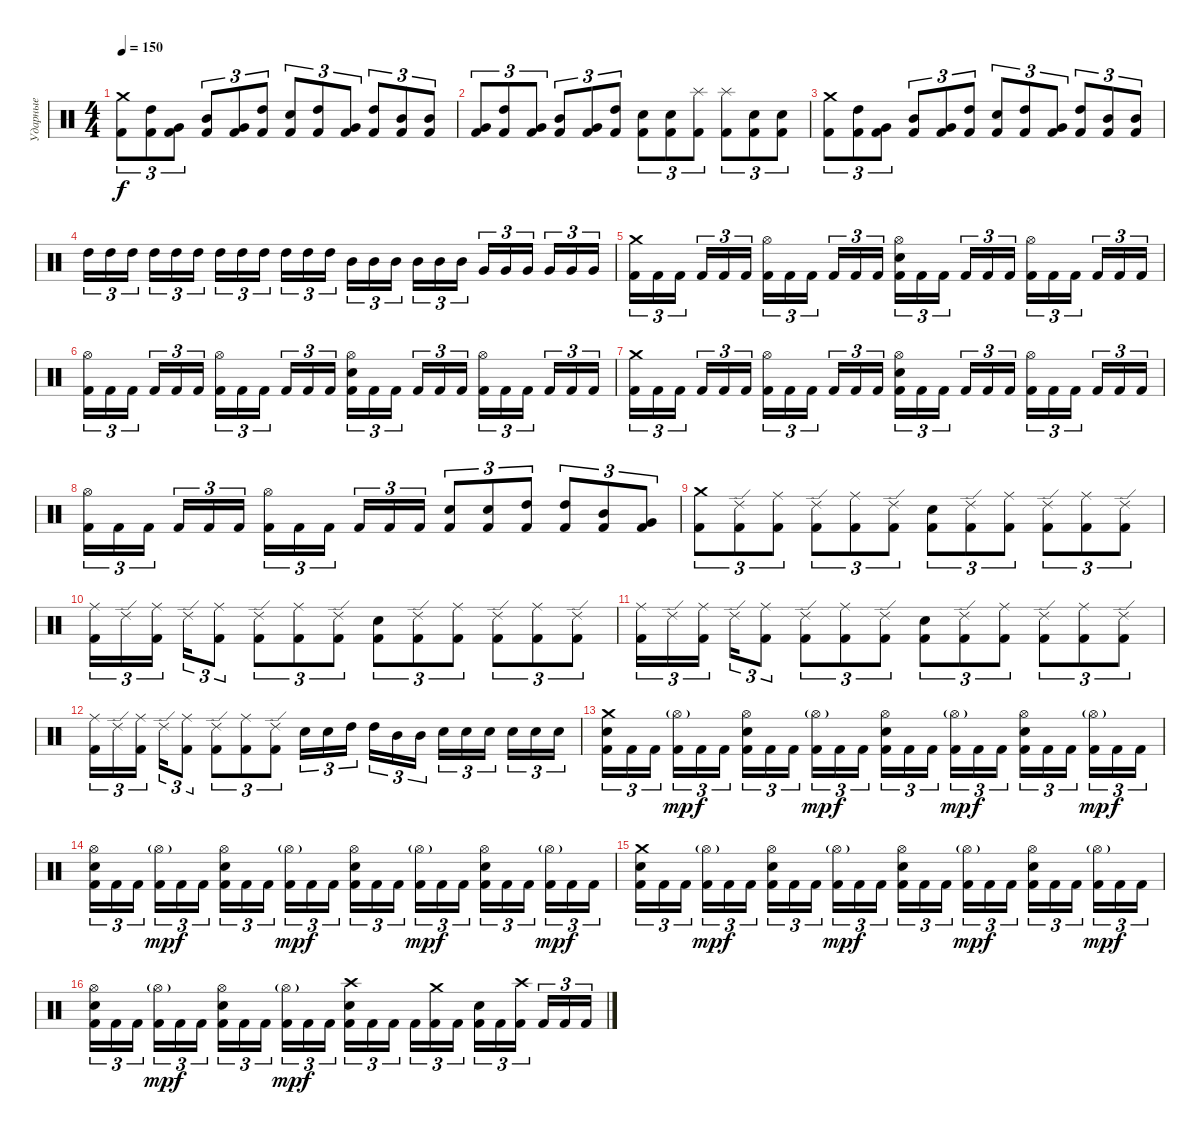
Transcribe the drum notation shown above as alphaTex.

\track ("Ударные" "Ударные") {instrument percussion}
\staff
\articulation defaults
\ts (4 4)
\tempo 150
\clef neutral
\ks c
("Crash medium (hit)" "Kick (hit) 2").8{tu (3 2) dy f} ("High Tom (hit)" "Kick (hit) 2").8{tu (3 2)} ("Very Low Tom (hit)" "Kick (hit) 2").8{tu (3 2)} ("Mid Tom (hit)" "Kick (hit) 2").8{tu (3 2)} ("Very Low Tom (hit)" "Kick (hit) 2").8{tu (3 2)} ("High Tom (hit)" "Kick (hit) 2").8{tu (3 2)} ("Snare (hit) 2" "Kick (hit) 2").8{tu (3 2)} ("High Tom (hit)" "Kick (hit) 2").8{tu (3 2)} ("Very Low Tom (hit)" "Kick (hit) 2").8{tu (3 2)} ("High Tom (hit)" "Kick (hit) 2").8{tu (3 2)} ("Mid Tom (hit)" "Kick (hit) 2").8{tu (3 2)} ("Mid Tom (hit)" "Kick (hit) 2").8{tu (3 2)} |
("Very Low Tom (hit)" "Kick (hit) 2").8{tu (3 2)} ("High Tom (hit)" "Kick (hit) 2").8{tu (3 2)} ("Very Low Tom (hit)" "Kick (hit) 2").8{tu (3 2)} ("Mid Tom (hit)" "Kick (hit) 2").8{tu (3 2)} ("Very Low Tom (hit)" "Kick (hit) 2").8{tu (3 2)} ("High Tom (hit)" "Kick (hit) 2").8{tu (3 2)} ("Snare (hit) 2" "Kick (hit) 2").8{tu (3 2)} ("Snare (hit) 2" "Kick (hit) 2").8{tu (3 2)} ("Splash (hit)" "Kick (hit) 2").8{tu (3 2)} ("Splash (hit)" "Kick (hit) 2").8{tu (3 2)} ("Snare (hit) 2" "Kick (hit) 2").8{tu (3 2)} ("Snare (hit) 2" "Kick (hit) 2").8{tu (3 2)} |
("Crash medium (hit)" "Kick (hit) 2").8{tu (3 2)} ("High Tom (hit)" "Kick (hit) 2").8{tu (3 2)} ("Very Low Tom (hit)" "Kick (hit) 2").8{tu (3 2)} ("Mid Tom (hit)" "Kick (hit) 2").8{tu (3 2)} ("Very Low Tom (hit)" "Kick (hit) 2").8{tu (3 2)} ("High Tom (hit)" "Kick (hit) 2").8{tu (3 2)} ("Snare (hit) 2" "Kick (hit) 2").8{tu (3 2)} ("High Tom (hit)" "Kick (hit) 2").8{tu (3 2)} ("Very Low Tom (hit)" "Kick (hit) 2").8{tu (3 2)} ("High Tom (hit)" "Kick (hit) 2").8{tu (3 2)} ("Mid Tom (hit)" "Kick (hit) 2").8{tu (3 2)} ("Mid Tom (hit)" "Kick (hit) 2").8{tu (3 2)} |
"High Tom (hit)".16{tu (3 2)} "High Tom (hit)".16{tu (3 2)} "High Tom (hit)".16{tu (3 2) beam splitsecondary} "High Tom (hit)".16{tu (3 2)} "High Tom (hit)".16{tu (3 2)} "High Tom (hit)".16{tu (3 2)} "High Tom (hit)".16{tu (3 2)} "High Tom (hit)".16{tu (3 2)} "High Tom (hit)".16{tu (3 2) beam splitsecondary} "High Tom (hit)".16{tu (3 2)} "High Tom (hit)".16{tu (3 2)} "High Tom (hit)".16{tu (3 2)} "Mid Tom (hit)".16{tu (3 2)} "Mid Tom (hit)".16{tu (3 2)} "Mid Tom (hit)".16{tu (3 2) beam splitsecondary} "Mid Tom (hit)".16{tu (3 2)} "Mid Tom (hit)".16{tu (3 2)} "Mid Tom (hit)".16{tu (3 2)} "Very Low Tom (hit)".16{tu (3 2)} "Very Low Tom (hit)".16{tu (3 2)} "Very Low Tom (hit)".16{tu (3 2) beam splitsecondary} "Very Low Tom (hit)".16{tu (3 2)} "Very Low Tom (hit)".16{tu (3 2)} "Very Low Tom (hit)".16{tu (3 2)} |
("Crash medium (hit)" "Kick (hit) 2").16{tu (3 2)} "Kick (hit) 2".16{tu (3 2)} "Kick (hit) 2".16{tu (3 2) beam splitsecondary} "Kick (hit) 2".16{tu (3 2)} "Kick (hit) 2".16{tu (3 2)} "Kick (hit) 2".16{tu (3 2)} ("Hi-Hat (open)" "Kick (hit) 2").16{tu (3 2)} "Kick (hit) 2".16{tu (3 2)} "Kick (hit) 2".16{tu (3 2) beam splitsecondary} "Kick (hit) 2".16{tu (3 2)} "Kick (hit) 2".16{tu (3 2)} "Kick (hit) 2".16{tu (3 2)} ("Hi-Hat (open)" "Snare (hit) 2" "Kick (hit) 2").16{tu (3 2)} "Kick (hit) 2".16{tu (3 2)} "Kick (hit) 2".16{tu (3 2) beam splitsecondary} "Kick (hit) 2".16{tu (3 2)} "Kick (hit) 2".16{tu (3 2)} "Kick (hit) 2".16{tu (3 2)} ("Hi-Hat (open)" "Kick (hit) 2").16{tu (3 2)} "Kick (hit) 2".16{tu (3 2)} "Kick (hit) 2".16{tu (3 2) beam splitsecondary} "Kick (hit) 2".16{tu (3 2)} "Kick (hit) 2".16{tu (3 2)} "Kick (hit) 2".16{tu (3 2)} |
("Hi-Hat (open)" "Kick (hit) 2").16{tu (3 2)} "Kick (hit) 2".16{tu (3 2)} "Kick (hit) 2".16{tu (3 2) beam splitsecondary} "Kick (hit) 2".16{tu (3 2)} "Kick (hit) 2".16{tu (3 2)} "Kick (hit) 2".16{tu (3 2)} ("Hi-Hat (open)" "Kick (hit) 2").16{tu (3 2)} "Kick (hit) 2".16{tu (3 2)} "Kick (hit) 2".16{tu (3 2) beam splitsecondary} "Kick (hit) 2".16{tu (3 2)} "Kick (hit) 2".16{tu (3 2)} "Kick (hit) 2".16{tu (3 2)} ("Hi-Hat (open)" "Snare (hit) 2" "Kick (hit) 2").16{tu (3 2)} "Kick (hit) 2".16{tu (3 2)} "Kick (hit) 2".16{tu (3 2) beam splitsecondary} "Kick (hit) 2".16{tu (3 2)} "Kick (hit) 2".16{tu (3 2)} "Kick (hit) 2".16{tu (3 2)} ("Hi-Hat (open)" "Kick (hit) 2").16{tu (3 2)} "Kick (hit) 2".16{tu (3 2)} "Kick (hit) 2".16{tu (3 2) beam splitsecondary} "Kick (hit) 2".16{tu (3 2)} "Kick (hit) 2".16{tu (3 2)} "Kick (hit) 2".16{tu (3 2)} |
("Crash medium (hit)" "Kick (hit) 2").16{tu (3 2)} "Kick (hit) 2".16{tu (3 2)} "Kick (hit) 2".16{tu (3 2) beam splitsecondary} "Kick (hit) 2".16{tu (3 2)} "Kick (hit) 2".16{tu (3 2)} "Kick (hit) 2".16{tu (3 2)} ("Hi-Hat (open)" "Kick (hit) 2").16{tu (3 2)} "Kick (hit) 2".16{tu (3 2)} "Kick (hit) 2".16{tu (3 2) beam splitsecondary} "Kick (hit) 2".16{tu (3 2)} "Kick (hit) 2".16{tu (3 2)} "Kick (hit) 2".16{tu (3 2)} ("Hi-Hat (open)" "Snare (hit) 2" "Kick (hit) 2").16{tu (3 2)} "Kick (hit) 2".16{tu (3 2)} "Kick (hit) 2".16{tu (3 2) beam splitsecondary} "Kick (hit) 2".16{tu (3 2)} "Kick (hit) 2".16{tu (3 2)} "Kick (hit) 2".16{tu (3 2)} ("Hi-Hat (open)" "Kick (hit) 2").16{tu (3 2)} "Kick (hit) 2".16{tu (3 2)} "Kick (hit) 2".16{tu (3 2) beam splitsecondary} "Kick (hit) 2".16{tu (3 2)} "Kick (hit) 2".16{tu (3 2)} "Kick (hit) 2".16{tu (3 2)} |
("Hi-Hat (open)" "Kick (hit) 2").16{tu (3 2)} "Kick (hit) 2".16{tu (3 2)} "Kick (hit) 2".16{tu (3 2) beam splitsecondary} "Kick (hit) 2".16{tu (3 2)} "Kick (hit) 2".16{tu (3 2)} "Kick (hit) 2".16{tu (3 2)} ("Hi-Hat (open)" "Kick (hit) 2").16{tu (3 2)} "Kick (hit) 2".16{tu (3 2)} "Kick (hit) 2".16{tu (3 2) beam splitsecondary} "Kick (hit) 2".16{tu (3 2)} "Kick (hit) 2".16{tu (3 2)} "Kick (hit) 2".16{tu (3 2)} ("Snare (hit) 2" "Kick (hit) 2").8{tu (3 2)} ("Snare (hit) 2" "Kick (hit) 2").8{tu (3 2)} ("High Tom (hit)" "Kick (hit) 2").8{tu (3 2)} ("High Tom (hit)" "Kick (hit) 2").8{tu (3 2)} ("Mid Tom (hit)" "Kick (hit) 2").8{tu (3 2)} ("Very Low Tom (hit)" "Kick (hit) 2").8{tu (3 2)} |
("Crash medium (hit)" "Kick (hit) 2").8{tu (3 2)} ("Ride (edge) 2" "Kick (hit) 2").8{tu (3 2)} ("Ride (middle)" "Kick (hit) 2").8{tu (3 2)} ("Ride (edge) 2" "Kick (hit) 2").8{tu (3 2)} ("Ride (middle)" "Kick (hit) 2").8{tu (3 2)} ("Ride (edge) 2" "Kick (hit) 2").8{tu (3 2)} ("Snare (hit) 2" "Kick (hit) 2").8{tu (3 2)} ("Ride (edge) 2" "Kick (hit) 2").8{tu (3 2)} ("Ride (middle)" "Kick (hit) 2").8{tu (3 2)} ("Ride (edge) 2" "Kick (hit) 2").8{tu (3 2)} ("Ride (middle)" "Kick (hit) 2").8{tu (3 2)} ("Ride (edge) 2" "Kick (hit) 2").8{tu (3 2)} |
("Ride (middle)" "Kick (hit) 2").16{tu (3 2)} "Ride (edge) 2".16{tu (3 2)} ("Ride (middle)" "Kick (hit) 2").16{tu (3 2) beam splitsecondary} "Ride (edge) 2".16{tu (3 2)} ("Ride (middle)" "Kick (hit) 2").8{tu (3 2)} ("Ride (edge) 2" "Kick (hit) 2").8{tu (3 2)} ("Ride (middle)" "Kick (hit) 2").8{tu (3 2)} ("Ride (edge) 2" "Kick (hit) 2").8{tu (3 2)} ("Snare (hit) 2" "Kick (hit) 2").8{tu (3 2)} ("Ride (edge) 2" "Kick (hit) 2").8{tu (3 2)} ("Ride (middle)" "Kick (hit) 2").8{tu (3 2)} ("Ride (edge) 2" "Kick (hit) 2").8{tu (3 2)} ("Ride (middle)" "Kick (hit) 2").8{tu (3 2)} ("Ride (edge) 2" "Kick (hit) 2").8{tu (3 2)} |
("Ride (middle)" "Kick (hit) 2").16{tu (3 2)} "Ride (edge) 2".16{tu (3 2)} ("Ride (middle)" "Kick (hit) 2").16{tu (3 2) beam splitsecondary} "Ride (edge) 2".16{tu (3 2)} ("Ride (middle)" "Kick (hit) 2").8{tu (3 2)} ("Ride (edge) 2" "Kick (hit) 2").8{tu (3 2)} ("Ride (middle)" "Kick (hit) 2").8{tu (3 2)} ("Ride (edge) 2" "Kick (hit) 2").8{tu (3 2)} ("Snare (hit) 2" "Kick (hit) 2").8{tu (3 2)} ("Ride (edge) 2" "Kick (hit) 2").8{tu (3 2)} ("Ride (middle)" "Kick (hit) 2").8{tu (3 2)} ("Ride (edge) 2" "Kick (hit) 2").8{tu (3 2)} ("Ride (middle)" "Kick (hit) 2").8{tu (3 2)} ("Ride (edge) 2" "Kick (hit) 2").8{tu (3 2)} |
("Ride (middle)" "Kick (hit) 2").16{tu (3 2)} "Ride (edge) 2".16{tu (3 2)} ("Ride (middle)" "Kick (hit) 2").16{tu (3 2) beam splitsecondary} "Ride (edge) 2".16{tu (3 2)} ("Ride (middle)" "Kick (hit) 2").8{tu (3 2)} ("Ride (edge) 2" "Kick (hit) 2").8{tu (3 2)} ("Ride (middle)" "Kick (hit) 2").8{tu (3 2)} ("Ride (edge) 2" "Kick (hit) 2").8{tu (3 2)} "Snare (hit) 2".16{tu (3 2)} "Snare (hit) 2".16{tu (3 2)} "High Tom (hit)".16{tu (3 2) beam splitsecondary} "High Tom (hit)".16{tu (3 2)} "Mid Tom (hit)".16{tu (3 2)} "Mid Tom (hit)".16{tu (3 2)} "Snare (hit) 2".16{tu (3 2)} "Snare (hit) 2".16{tu (3 2)} "Snare (hit) 2".16{tu (3 2) beam splitsecondary} "Snare (hit) 2".16{tu (3 2)} "Snare (hit) 2".16{tu (3 2)} "Snare (hit) 2".16{tu (3 2)} |
("Crash medium (hit)" "Snare (hit) 2" "Kick (hit) 2").16{tu (3 2)} "Kick (hit) 2".16{tu (3 2)} "Kick (hit) 2".16{tu (3 2) beam splitsecondary} ("Hi-Hat (open)"{g} "Kick (hit) 2").16{tu (3 2) dy mp} "Kick (hit) 2".16{tu (3 2) dy f} "Kick (hit) 2".16{tu (3 2)} ("Hi-Hat (open)" "Snare (hit) 2" "Kick (hit) 2").16{tu (3 2)} "Kick (hit) 2".16{tu (3 2)} "Kick (hit) 2".16{tu (3 2) beam splitsecondary} ("Hi-Hat (open)"{g} "Kick (hit) 2").16{tu (3 2) dy mp} "Kick (hit) 2".16{tu (3 2) dy f} "Kick (hit) 2".16{tu (3 2)} ("Hi-Hat (open)" "Snare (hit) 2" "Kick (hit) 2").16{tu (3 2)} "Kick (hit) 2".16{tu (3 2)} "Kick (hit) 2".16{tu (3 2) beam splitsecondary} ("Hi-Hat (open)"{g} "Kick (hit) 2").16{tu (3 2) dy mp} "Kick (hit) 2".16{tu (3 2) dy f} "Kick (hit) 2".16{tu (3 2)} ("Hi-Hat (open)" "Snare (hit) 2" "Kick (hit) 2").16{tu (3 2)} "Kick (hit) 2".16{tu (3 2)} "Kick (hit) 2".16{tu (3 2) beam splitsecondary} ("Hi-Hat (open)"{g} "Kick (hit) 2").16{tu (3 2) dy mp} "Kick (hit) 2".16{tu (3 2) dy f} "Kick (hit) 2".16{tu (3 2)} |
("Hi-Hat (open)" "Snare (hit) 2" "Kick (hit) 2").16{tu (3 2)} "Kick (hit) 2".16{tu (3 2)} "Kick (hit) 2".16{tu (3 2) beam splitsecondary} ("Hi-Hat (open)"{g} "Kick (hit) 2").16{tu (3 2) dy mp} "Kick (hit) 2".16{tu (3 2) dy f} "Kick (hit) 2".16{tu (3 2)} ("Hi-Hat (open)" "Snare (hit) 2" "Kick (hit) 2").16{tu (3 2)} "Kick (hit) 2".16{tu (3 2)} "Kick (hit) 2".16{tu (3 2) beam splitsecondary} ("Hi-Hat (open)"{g} "Kick (hit) 2").16{tu (3 2) dy mp} "Kick (hit) 2".16{tu (3 2) dy f} "Kick (hit) 2".16{tu (3 2)} ("Hi-Hat (open)" "Snare (hit) 2" "Kick (hit) 2").16{tu (3 2)} "Kick (hit) 2".16{tu (3 2)} "Kick (hit) 2".16{tu (3 2) beam splitsecondary} ("Hi-Hat (open)"{g} "Kick (hit) 2").16{tu (3 2) dy mp} "Kick (hit) 2".16{tu (3 2) dy f} "Kick (hit) 2".16{tu (3 2)} ("Hi-Hat (open)" "Snare (hit) 2" "Kick (hit) 2").16{tu (3 2)} "Kick (hit) 2".16{tu (3 2)} "Kick (hit) 2".16{tu (3 2) beam splitsecondary} ("Hi-Hat (open)"{g} "Kick (hit) 2").16{tu (3 2) dy mp} "Kick (hit) 2".16{tu (3 2) dy f} "Kick (hit) 2".16{tu (3 2)} |
("Crash medium (hit)" "Snare (hit) 2" "Kick (hit) 2").16{tu (3 2)} "Kick (hit) 2".16{tu (3 2)} "Kick (hit) 2".16{tu (3 2) beam splitsecondary} ("Hi-Hat (open)"{g} "Kick (hit) 2").16{tu (3 2) dy mp} "Kick (hit) 2".16{tu (3 2) dy f} "Kick (hit) 2".16{tu (3 2)} ("Hi-Hat (open)" "Snare (hit) 2" "Kick (hit) 2").16{tu (3 2)} "Kick (hit) 2".16{tu (3 2)} "Kick (hit) 2".16{tu (3 2) beam splitsecondary} ("Hi-Hat (open)"{g} "Kick (hit) 2").16{tu (3 2) dy mp} "Kick (hit) 2".16{tu (3 2) dy f} "Kick (hit) 2".16{tu (3 2)} ("Hi-Hat (open)" "Snare (hit) 2" "Kick (hit) 2").16{tu (3 2)} "Kick (hit) 2".16{tu (3 2)} "Kick (hit) 2".16{tu (3 2) beam splitsecondary} ("Hi-Hat (open)"{g} "Kick (hit) 2").16{tu (3 2) dy mp} "Kick (hit) 2".16{tu (3 2) dy f} "Kick (hit) 2".16{tu (3 2)} ("Hi-Hat (open)" "Snare (hit) 2" "Kick (hit) 2").16{tu (3 2)} "Kick (hit) 2".16{tu (3 2)} "Kick (hit) 2".16{tu (3 2) beam splitsecondary} ("Hi-Hat (open)"{g} "Kick (hit) 2").16{tu (3 2) dy mp} "Kick (hit) 2".16{tu (3 2) dy f} "Kick (hit) 2".16{tu (3 2)} |
("Hi-Hat (open)" "Snare (hit) 2" "Kick (hit) 2").16{tu (3 2)} "Kick (hit) 2".16{tu (3 2)} "Kick (hit) 2".16{tu (3 2) beam splitsecondary} ("Hi-Hat (open)"{g} "Kick (hit) 2").16{tu (3 2) dy mp} "Kick (hit) 2".16{tu (3 2) dy f} "Kick (hit) 2".16{tu (3 2)} ("Hi-Hat (open)" "Snare (hit) 2" "Kick (hit) 2").16{tu (3 2)} "Kick (hit) 2".16{tu (3 2)} "Kick (hit) 2".16{tu (3 2) beam splitsecondary} ("Hi-Hat (open)"{g} "Kick (hit) 2").16{tu (3 2) dy mp} "Kick (hit) 2".16{tu (3 2) dy f} "Kick (hit) 2".16{tu (3 2)} ("Crash high (hit)" "Snare (hit) 2" "Kick (hit) 2").16{tu (3 2)} "Kick (hit) 2".16{tu (3 2)} "Kick (hit) 2".16{tu (3 2) beam splitsecondary} "Kick (hit) 2".16{tu (3 2)} ("Crash medium (hit)" "Kick (hit) 2").16{tu (3 2)} "Kick (hit) 2".16{tu (3 2)} ("Snare (hit) 2" "Kick (hit) 2").16{tu (3 2)} "Kick (hit) 2".16{tu (3 2)} ("Crash high (hit)" "Kick (hit) 2").16{tu (3 2) beam splitsecondary} "Kick (hit) 2".16{tu (3 2)} "Kick (hit) 2".16{tu (3 2)} "Kick (hit) 2".16{tu (3 2)}
